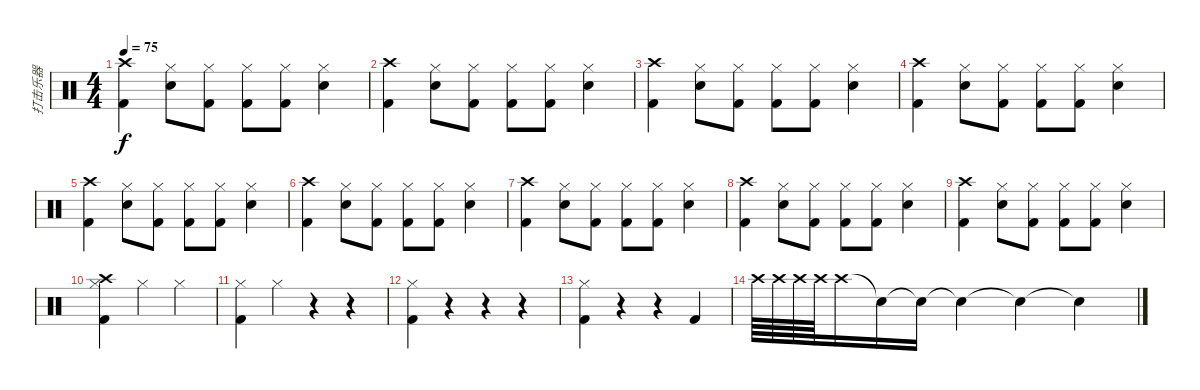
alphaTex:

\track ("打击乐器" "打击乐器") {instrument percussion}
\staff {score}
\articulation defaults
\ts (4 4)
\tempo 75
\clef neutral
\ks c
("Kick (hit) 2" "Crash high (hit)").4{dy f} ("Hi-Hat (closed)" "Electric Snare (hit)").8 ("Hi-Hat (closed)" "Kick (hit) 2").8 ("Hi-Hat (closed)" "Kick (hit) 2").8 ("Hi-Hat (closed)" "Kick (hit) 2").8 ("Hi-Hat (closed)" "Electric Snare (hit)").4 |
("Kick (hit) 2" "Crash high (hit)").4 ("Hi-Hat (closed)" "Electric Snare (hit)").8 ("Hi-Hat (closed)" "Kick (hit) 2").8 ("Hi-Hat (closed)" "Kick (hit) 2").8 ("Hi-Hat (closed)" "Kick (hit) 2").8 ("Hi-Hat (closed)" "Electric Snare (hit)").4 |
("Kick (hit) 2" "Crash high (hit)").4 ("Hi-Hat (closed)" "Electric Snare (hit)").8 ("Hi-Hat (closed)" "Kick (hit) 2").8 ("Hi-Hat (closed)" "Kick (hit) 2").8 ("Hi-Hat (closed)" "Kick (hit) 2").8 ("Hi-Hat (closed)" "Electric Snare (hit)").4 |
("Kick (hit) 2" "Crash high (hit)").4 ("Hi-Hat (closed)" "Electric Snare (hit)").8 ("Hi-Hat (closed)" "Kick (hit) 2").8 ("Hi-Hat (closed)" "Kick (hit) 2").8 ("Hi-Hat (closed)" "Kick (hit) 2").8 ("Hi-Hat (closed)" "Electric Snare (hit)").4 |
("Kick (hit) 2" "Crash high (hit)").4 ("Hi-Hat (closed)" "Electric Snare (hit)").8 ("Hi-Hat (closed)" "Kick (hit) 2").8 ("Hi-Hat (closed)" "Kick (hit) 2").8 ("Hi-Hat (closed)" "Kick (hit) 2").8 ("Hi-Hat (closed)" "Electric Snare (hit)").4 |
("Kick (hit) 2" "Crash high (hit)").4 ("Hi-Hat (closed)" "Electric Snare (hit)").8 ("Hi-Hat (closed)" "Kick (hit) 2").8 ("Hi-Hat (closed)" "Kick (hit) 2").8 ("Hi-Hat (closed)" "Kick (hit) 2").8 ("Hi-Hat (closed)" "Electric Snare (hit)").4 |
("Kick (hit) 2" "Crash high (hit)").4 ("Hi-Hat (closed)" "Electric Snare (hit)").8 ("Hi-Hat (closed)" "Kick (hit) 2").8 ("Hi-Hat (closed)" "Kick (hit) 2").8 ("Hi-Hat (closed)" "Kick (hit) 2").8 ("Hi-Hat (closed)" "Electric Snare (hit)").4 |
("Kick (hit) 2" "Crash high (hit)").4 ("Hi-Hat (closed)" "Electric Snare (hit)").8 ("Hi-Hat (closed)" "Kick (hit) 2").8 ("Hi-Hat (closed)" "Kick (hit) 2").8 ("Hi-Hat (closed)" "Kick (hit) 2").8 ("Hi-Hat (closed)" "Electric Snare (hit)").4 |
("Kick (hit) 2" "Crash high (hit)").4 ("Hi-Hat (closed)" "Electric Snare (hit)").8 ("Hi-Hat (closed)" "Kick (hit) 2").8 ("Hi-Hat (closed)" "Kick (hit) 2").8 ("Hi-Hat (closed)" "Kick (hit) 2").8 ("Hi-Hat (closed)" "Electric Snare (hit)").4 |
("Hi-Hat (closed)" "Crash high (hit)" "Kick (hit) 2").4 "Hi-Hat (closed)".4 "Hi-Hat (closed)".4 |
("Hi-Hat (closed)" "Kick (hit) 2").4 "Hi-Hat (closed)".4 r.4 r.4 |
("Hi-Hat (closed)" "Kick (hit) 2").4 r.4 r.4 r.4 |
("Hi-Hat (closed)" "Kick (hit) 2").4 r.4 r.4 "Kick (hit) 2".4 |
"Crash high (hit)".64 "Crash high (hit)".64 "Crash high (hit)".64 "Crash high (hit)".64 "Crash high (hit)".16 "Snare (hit)"{t}.16 "Snare (hit)"{t}.16 "Snare (hit)"{t}.4 "Snare (hit)"{t}.4 "Snare (hit)"{t}.4
